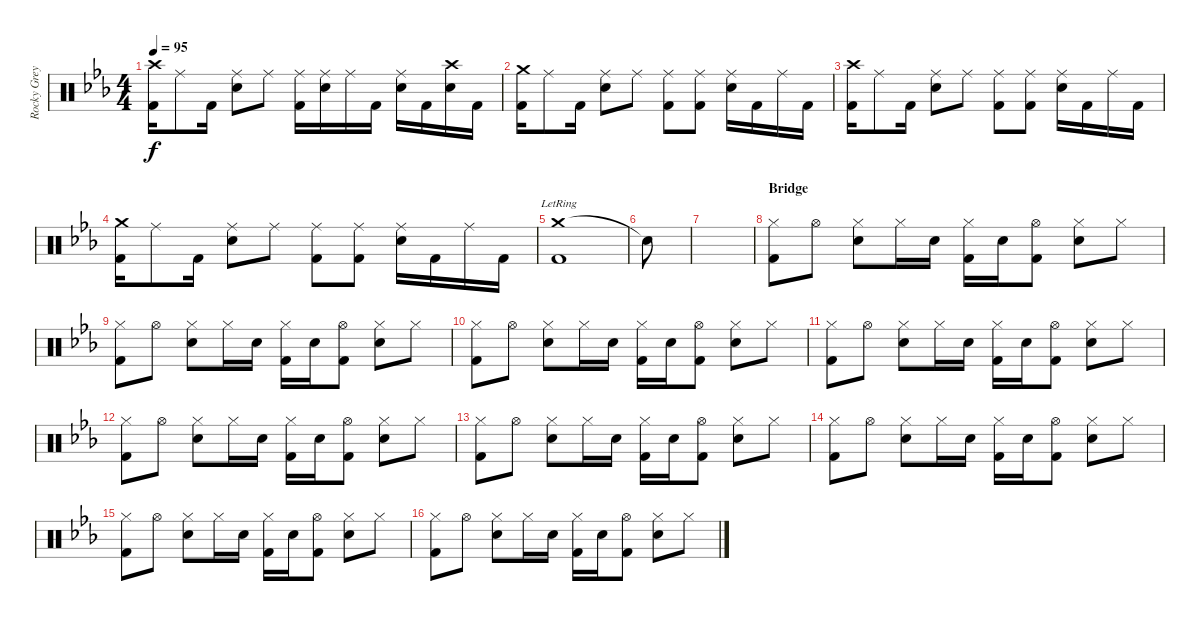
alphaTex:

\track ("Rocky Grey" "Rocky Grey") {instrument percussion}
\staff {score}
\articulation defaults
\ts (4 4)
\tempo 95
\clef neutral
\ks eb
("Crash high (hit)" "Kick (hit) 2").16{dy f} "Ride (middle)".8 "Kick (hit) 2".16 ("Ride (middle)" "Snare (hit) 2").8 "Ride (middle)".8 ("Ride (middle)" "Kick (hit) 2").16 ("Ride (middle)" "Snare (hit) 2").16 "Ride (middle)".16 "Kick (hit) 2".16 ("Ride (middle)" "Snare (hit) 2").16 "Kick (hit) 2".16 ("Crash high (hit)" "Snare (hit) 2").16 "Kick (hit) 2".16 |
("Crash medium (hit)" "Kick (hit) 2").16 "Ride (middle)".8 "Kick (hit) 2".16 ("Ride (middle)" "Snare (hit) 2").8 "Ride (middle)".8 ("Ride (middle)" "Kick (hit) 2").8 ("Ride (middle)" "Kick (hit) 2").8 ("Ride (middle)" "Snare (hit) 2").16 "Kick (hit) 2".16 "Ride (middle)".16 "Kick (hit) 2".16 |
("Crash high (hit)" "Kick (hit) 2").16 "Ride (middle)".8 "Kick (hit) 2".16 ("Ride (middle)" "Snare (hit) 2").8 "Ride (middle)".8 ("Ride (middle)" "Kick (hit) 2").8 ("Ride (middle)" "Kick (hit) 2").8 ("Ride (middle)" "Snare (hit) 2").16 "Kick (hit) 2".16 "Ride (middle)".16 "Kick (hit) 2".16 |
("Crash medium (hit)" "Kick (hit) 2").16 "Ride (middle)".8 "Kick (hit) 2".16 ("Ride (middle)" "Snare (hit) 2").8 "Ride (middle)".8 ("Ride (middle)" "Kick (hit) 2").8 ("Ride (middle)" "Kick (hit) 2").8 ("Ride (middle)" "Snare (hit) 2").16 "Kick (hit) 2".16 "Ride (middle)".16 "Kick (hit) 2".16 |
("Crash medium (hit)"{lr} "Kick (hit) 2").1 |
"Snare (hit)"{t}.8 |
|
\section ("" "Bridge")
("Hi-Hat (closed)" "Kick (hit) 2").8 "Hi-Hat (open)".8 ("Hi-Hat (closed)" "Snare (hit) 2").8 "Hi-Hat (closed)".16 "Snare (hit) 2".16 ("Hi-Hat (closed)" "Kick (hit) 2").16 "Snare (hit) 2".16 ("Hi-Hat (open)" "Kick (hit) 2").8 ("Hi-Hat (closed)" "Snare (hit) 2").8 "Hi-Hat (closed)".8 |
("Hi-Hat (closed)" "Kick (hit) 2").8 "Hi-Hat (open)".8 ("Hi-Hat (closed)" "Snare (hit) 2").8 "Hi-Hat (closed)".16 "Snare (hit) 2".16 ("Hi-Hat (closed)" "Kick (hit) 2").16 "Snare (hit) 2".16 ("Hi-Hat (open)" "Kick (hit) 2").8 ("Hi-Hat (closed)" "Snare (hit) 2").8 "Hi-Hat (closed)".8 |
("Hi-Hat (closed)" "Kick (hit) 2").8 "Hi-Hat (open)".8 ("Hi-Hat (closed)" "Snare (hit) 2").8 "Hi-Hat (closed)".16 "Snare (hit) 2".16 ("Hi-Hat (closed)" "Kick (hit) 2").16 "Snare (hit) 2".16 ("Hi-Hat (open)" "Kick (hit) 2").8 ("Hi-Hat (closed)" "Snare (hit) 2").8 "Hi-Hat (closed)".8 |
("Hi-Hat (closed)" "Kick (hit) 2").8 "Hi-Hat (open)".8 ("Hi-Hat (closed)" "Snare (hit) 2").8 "Hi-Hat (closed)".16 "Snare (hit) 2".16 ("Hi-Hat (closed)" "Kick (hit) 2").16 "Snare (hit) 2".16 ("Hi-Hat (open)" "Kick (hit) 2").8 ("Hi-Hat (closed)" "Snare (hit) 2").8 "Hi-Hat (closed)".8 |
("Hi-Hat (closed)" "Kick (hit) 2").8 "Hi-Hat (open)".8 ("Hi-Hat (closed)" "Snare (hit) 2").8 "Hi-Hat (closed)".16 "Snare (hit) 2".16 ("Hi-Hat (closed)" "Kick (hit) 2").16 "Snare (hit) 2".16 ("Hi-Hat (open)" "Kick (hit) 2").8 ("Hi-Hat (closed)" "Snare (hit) 2").8 "Hi-Hat (closed)".8 |
("Hi-Hat (closed)" "Kick (hit) 2").8 "Hi-Hat (open)".8 ("Hi-Hat (closed)" "Snare (hit) 2").8 "Hi-Hat (closed)".16 "Snare (hit) 2".16 ("Hi-Hat (closed)" "Kick (hit) 2").16 "Snare (hit) 2".16 ("Hi-Hat (open)" "Kick (hit) 2").8 ("Hi-Hat (closed)" "Snare (hit) 2").8 "Hi-Hat (closed)".8 |
("Hi-Hat (closed)" "Kick (hit) 2").8 "Hi-Hat (open)".8 ("Hi-Hat (closed)" "Snare (hit) 2").8 "Hi-Hat (closed)".16 "Snare (hit) 2".16 ("Hi-Hat (closed)" "Kick (hit) 2").16 "Snare (hit) 2".16 ("Hi-Hat (open)" "Kick (hit) 2").8 ("Hi-Hat (closed)" "Snare (hit) 2").8 "Hi-Hat (closed)".8 |
("Hi-Hat (closed)" "Kick (hit) 2").8 "Hi-Hat (open)".8 ("Hi-Hat (closed)" "Snare (hit) 2").8 "Hi-Hat (closed)".16 "Snare (hit) 2".16 ("Hi-Hat (closed)" "Kick (hit) 2").16 "Snare (hit) 2".16 ("Hi-Hat (open)" "Kick (hit) 2").8 ("Hi-Hat (closed)" "Snare (hit) 2").8 "Hi-Hat (closed)".8 |
("Hi-Hat (closed)" "Kick (hit) 2").8 "Hi-Hat (open)".8 ("Hi-Hat (closed)" "Snare (hit) 2").8 "Hi-Hat (closed)".16 "Snare (hit) 2".16 ("Hi-Hat (closed)" "Kick (hit) 2").16 "Snare (hit) 2".16 ("Hi-Hat (open)" "Kick (hit) 2").8 ("Hi-Hat (closed)" "Snare (hit) 2").8 "Hi-Hat (closed)".8
